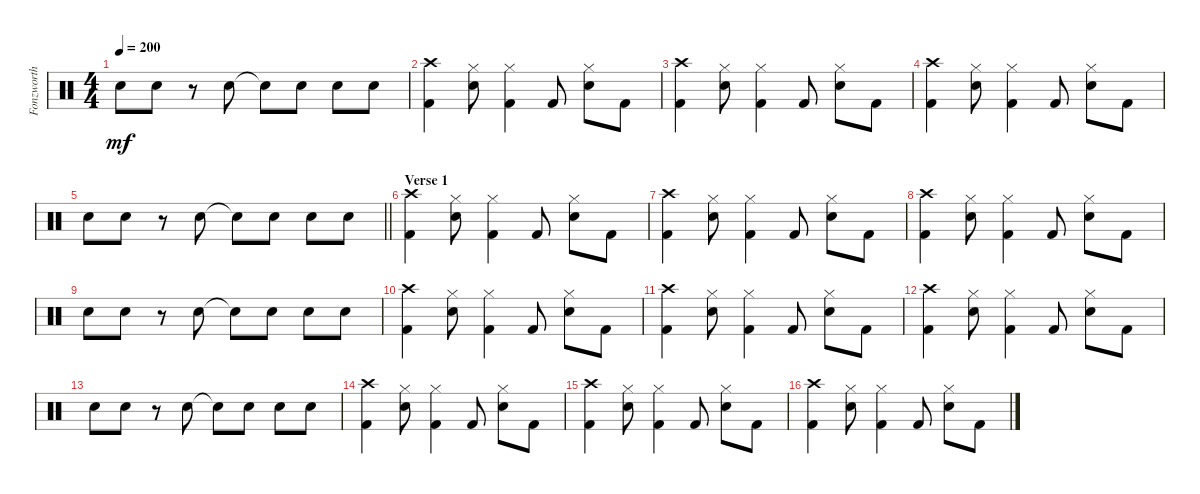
\track ("Fonzworth Fred" "Fonzworth ") {instrument percussion}
\staff {score}
\articulation defaults
\ts (4 4)
\tempo 200
\clef neutral
\ks c "Snare (hit) 2".8{dy mf} "Snare (hit) 2".8
r.8 "Snare (hit) 2".8 "Snare (hit)"{t}.8 "Snare (hit) 2".8 "Snare (hit) 2".8 "Snare (hit) 2".8 |
("Crash high (hit)" "Kick (hit) 2").4 ("Hi-Hat (closed)" "Snare (hit) 2").8 ("Hi-Hat (closed)" "Kick (hit) 2").4 "Kick (hit) 2".8 ("Hi-Hat (closed)" "Snare (hit) 2").8 "Kick (hit) 2".8 |
("Crash high (hit)" "Kick (hit) 2").4 ("Hi-Hat (closed)" "Snare (hit) 2").8 ("Hi-Hat (closed)" "Kick (hit) 2").4 "Kick (hit) 2".8 ("Hi-Hat (closed)" "Snare (hit) 2").8 "Kick (hit) 2".8 |
("Crash high (hit)" "Kick (hit) 2").4 ("Hi-Hat (closed)" "Snare (hit) 2").8 ("Hi-Hat (closed)" "Kick (hit) 2").4 "Kick (hit) 2".8 ("Hi-Hat (closed)" "Snare (hit) 2").8 "Kick (hit) 2".8 |
\barLineRight lightlight "Snare (hit) 2".8 "Snare (hit) 2".8
r.8 "Snare (hit) 2".8 "Snare (hit)"{t}.8 "Snare (hit) 2".8 "Snare (hit) 2".8 "Snare (hit) 2".8 |
\section ("" "Verse 1")
("Crash high (hit)" "Kick (hit) 2").4 ("Hi-Hat (closed)" "Snare (hit) 2").8 ("Hi-Hat (closed)" "Kick (hit) 2").4 "Kick (hit) 2".8 ("Hi-Hat (closed)" "Snare (hit) 2").8 "Kick (hit) 2".8 |
("Crash high (hit)" "Kick (hit) 2").4 ("Hi-Hat (closed)" "Snare (hit) 2").8 ("Hi-Hat (closed)" "Kick (hit) 2").4 "Kick (hit) 2".8 ("Hi-Hat (closed)" "Snare (hit) 2").8 "Kick (hit) 2".8 |
("Crash high (hit)" "Kick (hit) 2").4 ("Hi-Hat (closed)" "Snare (hit) 2").8 ("Hi-Hat (closed)" "Kick (hit) 2").4 "Kick (hit) 2".8 ("Hi-Hat (closed)" "Snare (hit) 2").8 "Kick (hit) 2".8 |
"Snare (hit) 2".8 "Snare (hit) 2".8 r.8 "Snare (hit) 2".8 "Snare (hit)"{t}.8 "Snare (hit) 2".8 "Snare (hit) 2".8 "Snare (hit) 2".8 |
("Crash high (hit)" "Kick (hit) 2").4 ("Hi-Hat (closed)" "Snare (hit) 2").8 ("Hi-Hat (closed)" "Kick (hit) 2").4 "Kick (hit) 2".8 ("Hi-Hat (closed)" "Snare (hit) 2").8 "Kick (hit) 2".8 |
("Crash high (hit)" "Kick (hit) 2").4 ("Hi-Hat (closed)" "Snare (hit) 2").8 ("Hi-Hat (closed)" "Kick (hit) 2").4 "Kick (hit) 2".8 ("Hi-Hat (closed)" "Snare (hit) 2").8 "Kick (hit) 2".8 |
("Crash high (hit)" "Kick (hit) 2").4 ("Hi-Hat (closed)" "Snare (hit) 2").8 ("Hi-Hat (closed)" "Kick (hit) 2").4 "Kick (hit) 2".8 ("Hi-Hat (closed)" "Snare (hit) 2").8 "Kick (hit) 2".8 |
"Snare (hit) 2".8 "Snare (hit) 2".8 r.8 "Snare (hit) 2".8 "Snare (hit)"{t}.8 "Snare (hit) 2".8 "Snare (hit) 2".8 "Snare (hit) 2".8 |
("Crash high (hit)" "Kick (hit) 2").4 ("Hi-Hat (closed)" "Snare (hit) 2").8 ("Hi-Hat (closed)" "Kick (hit) 2").4 "Kick (hit) 2".8 ("Hi-Hat (closed)" "Snare (hit) 2").8 "Kick (hit) 2".8 |
("Crash high (hit)" "Kick (hit) 2").4 ("Hi-Hat (closed)" "Snare (hit) 2").8 ("Hi-Hat (closed)" "Kick (hit) 2").4 "Kick (hit) 2".8 ("Hi-Hat (closed)" "Snare (hit) 2").8 "Kick (hit) 2".8 |
("Crash high (hit)" "Kick (hit) 2").4 ("Hi-Hat (closed)" "Snare (hit) 2").8 ("Hi-Hat (closed)" "Kick (hit) 2").4 "Kick (hit) 2".8 ("Hi-Hat (closed)" "Snare (hit) 2").8 "Kick (hit) 2".8
